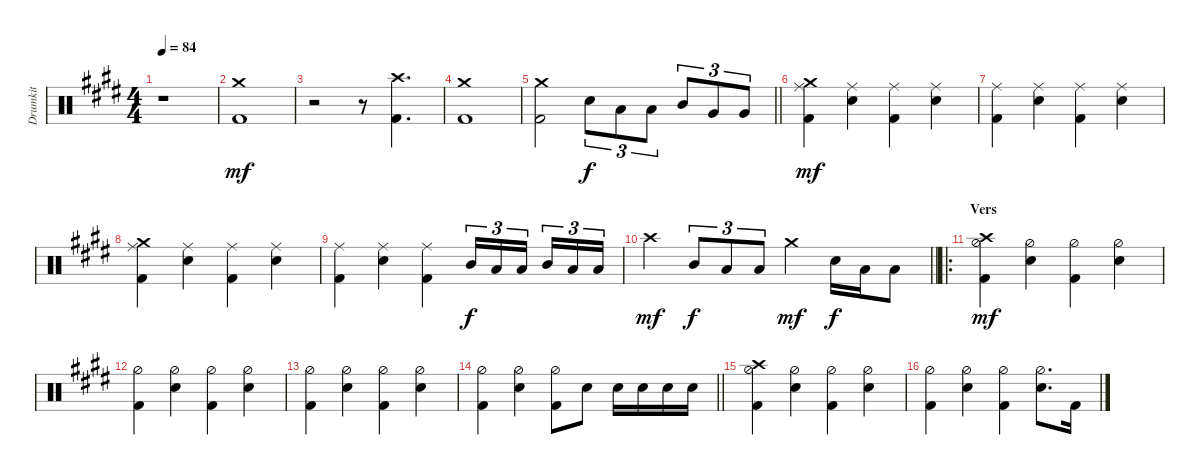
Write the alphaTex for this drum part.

\track ("Drumkit" "Drumkit") {instrument percussion}
\staff {score}
\articulation defaults
\ts (4 4)
\tempo 84
\clef neutral
\ks c#minor
r.1{dy mf} |
("Crash medium (hit)" "Kick (hit) 2").1 |
r.2 r.8 ("Kick (hit) 2" "Crash high (hit)").4{d} |
("Kick (hit) 2" "Crash medium (hit)").1 |
\barLineRight lightlight
("Kick (hit) 2" "Crash medium (hit)").2 "Snare (hit) 2".8{tu (3 2) dy f} "Low Tom (hit)".8{tu (3 2)} "Low Tom (hit)".8{tu (3 2)} "Mid Tom (hit)".8{tu (3 2)} "Very Low Tom (hit)".8{tu (3 2)} "Very Low Tom (hit)".8{tu (3 2)} |
("Kick (hit) 2" "Crash medium (hit)" "Ride (middle)").4{dy mf} ("Ride (middle)" "Snare (hit) 2").4 ("Ride (middle)" "Kick (hit) 2").4 ("Ride (middle)" "Snare (hit) 2").4 |
("Kick (hit) 2" "Ride (middle)").4 ("Ride (middle)" "Snare (hit) 2").4 ("Ride (middle)" "Kick (hit) 2").4 ("Ride (middle)" "Snare (hit) 2").4 |
("Kick (hit) 2" "Crash medium (hit)" "Ride (middle)").4 ("Ride (middle)" "Snare (hit) 2").4 ("Ride (middle)" "Kick (hit) 2").4 ("Ride (middle)" "Snare (hit) 2").4 |
("Kick (hit) 2" "Ride (middle)").4 ("Ride (middle)" "Snare (hit) 2").4 ("Ride (middle)" "Kick (hit) 2").4 "Mid Tom (hit)".16{tu (3 2) dy f} "Low Tom (hit)".16{tu (3 2)} "Low Tom (hit)".16{tu (3 2)} "Mid Tom (hit)".16{tu (3 2)} "Low Tom (hit)".16{tu (3 2)} "Low Tom (hit)".16{tu (3 2)} |
\barLineRight lightlight "Crash high (hit)".4{dy mf} "Mid Tom (hit)".8{tu (3 2) dy f} "Low Tom (hit)".8{tu (3 2)} "Low Tom (hit)".8{tu (3 2)} "Crash medium (hit)".4{dy mf} "Snare (hit) 2".16{dy f} "Low Tom (hit)".16 "Low Tom (hit)".8
|
\ro
\section ("" "Vers")
("Crash high (hit)" "Kick (hit) 2" "Hi-Hat (half)").4{dy mf} ("Hi-Hat (half)" "Snare (hit) 2").4 ("Hi-Hat (half)" "Kick (hit) 2").4 ("Hi-Hat (half)" "Snare (hit) 2").4 |
("Kick (hit) 2" "Hi-Hat (half)").4 ("Hi-Hat (half)" "Snare (hit) 2").4 ("Hi-Hat (half)" "Kick (hit) 2").4 ("Hi-Hat (half)" "Snare (hit) 2").4 |
("Kick (hit) 2" "Hi-Hat (half)").4 ("Hi-Hat (half)" "Snare (hit) 2").4 ("Hi-Hat (half)" "Kick (hit) 2").4 ("Hi-Hat (half)" "Snare (hit) 2").4 |
\barLineRight lightlight
("Kick (hit) 2" "Hi-Hat (half)").4 ("Hi-Hat (half)" "Snare (hit) 2").4 ("Hi-Hat (half)" "Kick (hit) 2").8 "Snare (hit) 2".8 "Snare (hit) 2".16 "Snare (hit) 2".16 "Snare (hit) 2".16 "Snare (hit) 2".16 |
("Kick (hit) 2" "Hi-Hat (half)" "Crash high (hit)").4 ("Hi-Hat (half)" "Snare (hit) 2").4 ("Hi-Hat (half)" "Kick (hit) 2").4 ("Hi-Hat (half)" "Snare (hit) 2").4 |
("Kick (hit) 2" "Hi-Hat (half)").4 ("Hi-Hat (half)" "Snare (hit) 2").4 ("Hi-Hat (half)" "Kick (hit) 2").4 ("Hi-Hat (half)" "Snare (hit) 2").8{d} "Kick (hit) 2".16
